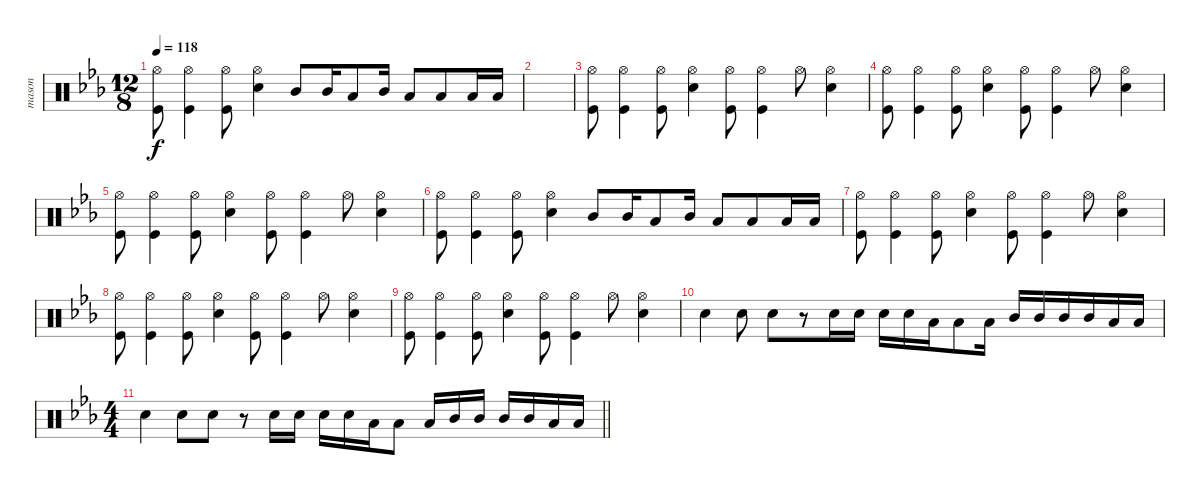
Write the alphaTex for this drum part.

\track ("mason" "mason") {instrument percussion}
\staff {score}
\articulation defaults
\ts (12 8)
\tempo 118
\clef neutral
\ks cminor
("Kick (hit)" "Hi-Hat (open)").8{dy f} ("Kick (hit)" "Hi-Hat (open)").4 ("Kick (hit)" "Hi-Hat (open)").8 ("Snare (hit) 2" "Hi-Hat (open)").4 "Mid Tom (hit)".8 "Mid Tom (hit)".16 "Low Tom (hit)".8 "Mid Tom (hit)".16 "Low Tom (hit)".8 "Low Floor Tom (hit)".8 "Low Floor Tom (hit)".16 "Low Floor Tom (hit)".16 |
|
("Kick (hit)" "Hi-Hat (open)").8 ("Kick (hit)" "Hi-Hat (open)").4 ("Kick (hit)" "Hi-Hat (open)").8 ("Snare (hit) 2" "Hi-Hat (open)").4 ("Kick (hit)" "Hi-Hat (open)").8 ("Kick (hit)" "Hi-Hat (open)").4 "Hi-Hat (open)".8 ("Snare (hit) 2" "Hi-Hat (open)").4 |
("Kick (hit)" "Hi-Hat (open)").8 ("Kick (hit)" "Hi-Hat (open)").4 ("Kick (hit)" "Hi-Hat (open)").8 ("Snare (hit) 2" "Hi-Hat (open)").4 ("Kick (hit)" "Hi-Hat (open)").8 ("Kick (hit)" "Hi-Hat (open)").4 "Hi-Hat (open)".8 ("Snare (hit) 2" "Hi-Hat (open)").4 |
("Kick (hit)" "Hi-Hat (open)").8 ("Kick (hit)" "Hi-Hat (open)").4 ("Kick (hit)" "Hi-Hat (open)").8 ("Snare (hit) 2" "Hi-Hat (open)").4 ("Kick (hit)" "Hi-Hat (open)").8 ("Kick (hit)" "Hi-Hat (open)").4 "Hi-Hat (open)".8 ("Snare (hit) 2" "Hi-Hat (open)").4 |
("Kick (hit)" "Hi-Hat (open)").8 ("Kick (hit)" "Hi-Hat (open)").4 ("Kick (hit)" "Hi-Hat (open)").8 ("Snare (hit) 2" "Hi-Hat (open)").4 "Mid Tom (hit)".8 "Mid Tom (hit)".16 "Low Tom (hit)".8 "Mid Tom (hit)".16 "Low Tom (hit)".8 "Low Floor Tom (hit)".8 "Low Floor Tom (hit)".16 "Low Floor Tom (hit)".16 |
("Kick (hit)" "Hi-Hat (open)").8 ("Kick (hit)" "Hi-Hat (open)").4 ("Kick (hit)" "Hi-Hat (open)").8 ("Snare (hit) 2" "Hi-Hat (open)").4 ("Kick (hit)" "Hi-Hat (open)").8 ("Kick (hit)" "Hi-Hat (open)").4 "Hi-Hat (open)".8 ("Snare (hit) 2" "Hi-Hat (open)").4 |
("Kick (hit)" "Hi-Hat (open)").8 ("Kick (hit)" "Hi-Hat (open)").4 ("Kick (hit)" "Hi-Hat (open)").8 ("Snare (hit) 2" "Hi-Hat (open)").4 ("Kick (hit)" "Hi-Hat (open)").8 ("Kick (hit)" "Hi-Hat (open)").4 "Hi-Hat (open)".8 ("Snare (hit) 2" "Hi-Hat (open)").4 |
("Kick (hit)" "Hi-Hat (open)").8 ("Kick (hit)" "Hi-Hat (open)").4 ("Kick (hit)" "Hi-Hat (open)").8 ("Snare (hit) 2" "Hi-Hat (open)").4 ("Kick (hit)" "Hi-Hat (open)").8 ("Kick (hit)" "Hi-Hat (open)").4 "Hi-Hat (open)".8 ("Snare (hit) 2" "Hi-Hat (open)").4 |
"Snare (hit) 2".4 "Snare (hit) 2".8 "Snare (hit) 2".8 r.8 "Snare (hit) 2".16 "Snare (hit) 2".16 "Snare (hit) 2".16 "Snare (hit) 2".16 "Low Tom (hit)".16 "Low Tom (hit)".8 "Low Tom (hit)".16 "Mid Tom (hit)".16 "Mid Tom (hit)".16 "Mid Tom (hit)".16 "Mid Tom (hit)".16 "Low Floor Tom (hit)".16 "Low Floor Tom (hit)".16 |
\ts (4 4)
\barLineRight lightlight "Snare (hit) 2".4 "Snare (hit) 2".8 "Snare (hit) 2".8
r.8 "Snare (hit) 2".16 "Snare (hit) 2".16 "Snare (hit) 2".16 "Snare (hit) 2".16 "Low Tom (hit)".16 "Low Tom (hit)".8 "Low Tom (hit)".16 "Mid Tom (hit)".16 "Mid Tom (hit)".16 "Mid Tom (hit)".16 "Mid Tom (hit)".16 "Low Floor Tom (hit)".16 "Low Floor Tom (hit)".16
